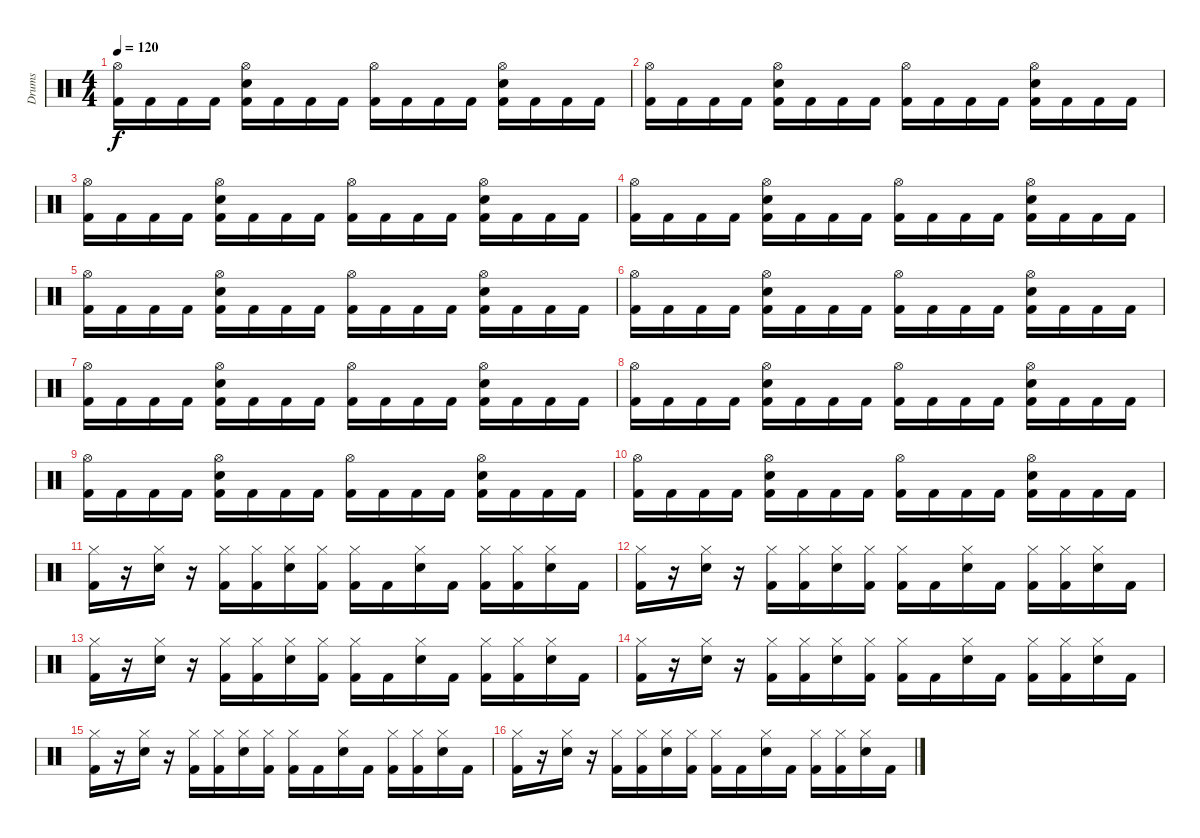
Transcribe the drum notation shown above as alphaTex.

\track ("Drums" "Drums") {instrument percussion}
\staff {score}
\articulation defaults
\ts (4 4)
\tempo 120
\clef neutral
\ks c
("Hi-Hat (open)" "Kick (hit) 2").16{dy f} "Kick (hit) 2".16 "Kick (hit) 2".16 "Kick (hit) 2".16 ("Hi-Hat (open)" "Snare (hit) 2" "Kick (hit) 2").16 "Kick (hit) 2".16 "Kick (hit) 2".16 "Kick (hit) 2".16 ("Hi-Hat (open)" "Kick (hit) 2").16 "Kick (hit) 2".16 "Kick (hit) 2".16 "Kick (hit) 2".16 ("Hi-Hat (open)" "Snare (hit) 2" "Kick (hit) 2").16 "Kick (hit) 2".16 "Kick (hit) 2".16 "Kick (hit) 2".16 |
("Hi-Hat (open)" "Kick (hit) 2").16 "Kick (hit) 2".16 "Kick (hit) 2".16 "Kick (hit) 2".16 ("Hi-Hat (open)" "Snare (hit) 2" "Kick (hit) 2").16 "Kick (hit) 2".16 "Kick (hit) 2".16 "Kick (hit) 2".16 ("Hi-Hat (open)" "Kick (hit) 2").16 "Kick (hit) 2".16 "Kick (hit) 2".16 "Kick (hit) 2".16 ("Hi-Hat (open)" "Snare (hit) 2" "Kick (hit) 2").16 "Kick (hit) 2".16 "Kick (hit) 2".16 "Kick (hit) 2".16 |
("Hi-Hat (open)" "Kick (hit) 2").16 "Kick (hit) 2".16 "Kick (hit) 2".16 "Kick (hit) 2".16 ("Hi-Hat (open)" "Snare (hit) 2" "Kick (hit) 2").16 "Kick (hit) 2".16 "Kick (hit) 2".16 "Kick (hit) 2".16 ("Hi-Hat (open)" "Kick (hit) 2").16 "Kick (hit) 2".16 "Kick (hit) 2".16 "Kick (hit) 2".16 ("Hi-Hat (open)" "Snare (hit) 2" "Kick (hit) 2").16 "Kick (hit) 2".16 "Kick (hit) 2".16 "Kick (hit) 2".16 |
("Hi-Hat (open)" "Kick (hit) 2").16 "Kick (hit) 2".16 "Kick (hit) 2".16 "Kick (hit) 2".16 ("Hi-Hat (open)" "Snare (hit) 2" "Kick (hit) 2").16 "Kick (hit) 2".16 "Kick (hit) 2".16 "Kick (hit) 2".16 ("Hi-Hat (open)" "Kick (hit) 2").16 "Kick (hit) 2".16 "Kick (hit) 2".16 "Kick (hit) 2".16 ("Hi-Hat (open)" "Snare (hit) 2" "Kick (hit) 2").16 "Kick (hit) 2".16 "Kick (hit) 2".16 "Kick (hit) 2".16 |
("Hi-Hat (open)" "Kick (hit) 2").16 "Kick (hit) 2".16 "Kick (hit) 2".16 "Kick (hit) 2".16 ("Hi-Hat (open)" "Snare (hit) 2" "Kick (hit) 2").16 "Kick (hit) 2".16 "Kick (hit) 2".16 "Kick (hit) 2".16 ("Hi-Hat (open)" "Kick (hit) 2").16 "Kick (hit) 2".16 "Kick (hit) 2".16 "Kick (hit) 2".16 ("Hi-Hat (open)" "Snare (hit) 2" "Kick (hit) 2").16 "Kick (hit) 2".16 "Kick (hit) 2".16 "Kick (hit) 2".16 |
("Hi-Hat (open)" "Kick (hit) 2").16 "Kick (hit) 2".16 "Kick (hit) 2".16 "Kick (hit) 2".16 ("Hi-Hat (open)" "Snare (hit) 2" "Kick (hit) 2").16 "Kick (hit) 2".16 "Kick (hit) 2".16 "Kick (hit) 2".16 ("Hi-Hat (open)" "Kick (hit) 2").16 "Kick (hit) 2".16 "Kick (hit) 2".16 "Kick (hit) 2".16 ("Hi-Hat (open)" "Snare (hit) 2" "Kick (hit) 2").16 "Kick (hit) 2".16 "Kick (hit) 2".16 "Kick (hit) 2".16 |
("Hi-Hat (open)" "Kick (hit) 2").16 "Kick (hit) 2".16 "Kick (hit) 2".16 "Kick (hit) 2".16 ("Hi-Hat (open)" "Snare (hit) 2" "Kick (hit) 2").16 "Kick (hit) 2".16 "Kick (hit) 2".16 "Kick (hit) 2".16 ("Hi-Hat (open)" "Kick (hit) 2").16 "Kick (hit) 2".16 "Kick (hit) 2".16 "Kick (hit) 2".16 ("Hi-Hat (open)" "Snare (hit) 2" "Kick (hit) 2").16 "Kick (hit) 2".16 "Kick (hit) 2".16 "Kick (hit) 2".16 |
("Hi-Hat (open)" "Kick (hit) 2").16 "Kick (hit) 2".16 "Kick (hit) 2".16 "Kick (hit) 2".16 ("Hi-Hat (open)" "Snare (hit) 2" "Kick (hit) 2").16 "Kick (hit) 2".16 "Kick (hit) 2".16 "Kick (hit) 2".16 ("Hi-Hat (open)" "Kick (hit) 2").16 "Kick (hit) 2".16 "Kick (hit) 2".16 "Kick (hit) 2".16 ("Hi-Hat (open)" "Snare (hit) 2" "Kick (hit) 2").16 "Kick (hit) 2".16 "Kick (hit) 2".16 "Kick (hit) 2".16 |
("Hi-Hat (open)" "Kick (hit) 2").16 "Kick (hit) 2".16 "Kick (hit) 2".16 "Kick (hit) 2".16 ("Hi-Hat (open)" "Snare (hit) 2" "Kick (hit) 2").16 "Kick (hit) 2".16 "Kick (hit) 2".16 "Kick (hit) 2".16 ("Hi-Hat (open)" "Kick (hit) 2").16 "Kick (hit) 2".16 "Kick (hit) 2".16 "Kick (hit) 2".16 ("Hi-Hat (open)" "Snare (hit) 2" "Kick (hit) 2").16 "Kick (hit) 2".16 "Kick (hit) 2".16 "Kick (hit) 2".16 |
("Hi-Hat (open)" "Kick (hit) 2").16 "Kick (hit) 2".16 "Kick (hit) 2".16 "Kick (hit) 2".16 ("Hi-Hat (open)" "Snare (hit) 2" "Kick (hit) 2").16 "Kick (hit) 2".16 "Kick (hit) 2".16 "Kick (hit) 2".16 ("Hi-Hat (open)" "Kick (hit) 2").16 "Kick (hit) 2".16 "Kick (hit) 2".16 "Kick (hit) 2".16 ("Hi-Hat (open)" "Snare (hit) 2" "Kick (hit) 2").16 "Kick (hit) 2".16 "Kick (hit) 2".16 "Kick (hit) 2".16 |
("Hi-Hat (closed)" "Kick (hit) 2").16 r.16 ("Hi-Hat (closed)" "Snare (hit) 2").16 r.16 ("Hi-Hat (closed)" "Kick (hit) 2").16 ("Hi-Hat (closed)" "Kick (hit) 2").16 ("Hi-Hat (closed)" "Snare (hit) 2").16 ("Hi-Hat (closed)" "Kick (hit) 2").16 ("Hi-Hat (closed)" "Kick (hit) 2").16 "Kick (hit) 2".16 ("Hi-Hat (closed)" "Snare (hit) 2").16 "Kick (hit) 2".16 ("Hi-Hat (closed)" "Kick (hit) 2").16 ("Hi-Hat (closed)" "Kick (hit) 2").16 ("Hi-Hat (closed)" "Snare (hit) 2").16 "Kick (hit) 2".16 |
("Hi-Hat (closed)" "Kick (hit) 2").16 r.16 ("Hi-Hat (closed)" "Snare (hit) 2").16 r.16 ("Hi-Hat (closed)" "Kick (hit) 2").16 ("Hi-Hat (closed)" "Kick (hit) 2").16 ("Hi-Hat (closed)" "Snare (hit) 2").16 ("Hi-Hat (closed)" "Kick (hit) 2").16 ("Hi-Hat (closed)" "Kick (hit) 2").16 "Kick (hit) 2".16 ("Hi-Hat (closed)" "Snare (hit) 2").16 "Kick (hit) 2".16 ("Hi-Hat (closed)" "Kick (hit) 2").16 ("Hi-Hat (closed)" "Kick (hit) 2").16 ("Hi-Hat (closed)" "Snare (hit) 2").16 "Kick (hit) 2".16 |
("Hi-Hat (closed)" "Kick (hit) 2").16 r.16 ("Hi-Hat (closed)" "Snare (hit) 2").16 r.16 ("Hi-Hat (closed)" "Kick (hit) 2").16 ("Hi-Hat (closed)" "Kick (hit) 2").16 ("Hi-Hat (closed)" "Snare (hit) 2").16 ("Hi-Hat (closed)" "Kick (hit) 2").16 ("Hi-Hat (closed)" "Kick (hit) 2").16 "Kick (hit) 2".16 ("Hi-Hat (closed)" "Snare (hit) 2").16 "Kick (hit) 2".16 ("Hi-Hat (closed)" "Kick (hit) 2").16 ("Hi-Hat (closed)" "Kick (hit) 2").16 ("Hi-Hat (closed)" "Snare (hit) 2").16 "Kick (hit) 2".16 |
("Hi-Hat (closed)" "Kick (hit) 2").16 r.16 ("Hi-Hat (closed)" "Snare (hit) 2").16 r.16 ("Hi-Hat (closed)" "Kick (hit) 2").16 ("Hi-Hat (closed)" "Kick (hit) 2").16 ("Hi-Hat (closed)" "Snare (hit) 2").16 ("Hi-Hat (closed)" "Kick (hit) 2").16 ("Hi-Hat (closed)" "Kick (hit) 2").16 "Kick (hit) 2".16 ("Hi-Hat (closed)" "Snare (hit) 2").16 "Kick (hit) 2".16 ("Hi-Hat (closed)" "Kick (hit) 2").16 ("Hi-Hat (closed)" "Kick (hit) 2").16 ("Hi-Hat (closed)" "Snare (hit) 2").16 "Kick (hit) 2".16 |
("Hi-Hat (closed)" "Kick (hit) 2").16 r.16 ("Hi-Hat (closed)" "Snare (hit) 2").16 r.16 ("Hi-Hat (closed)" "Kick (hit) 2").16 ("Hi-Hat (closed)" "Kick (hit) 2").16 ("Hi-Hat (closed)" "Snare (hit) 2").16 ("Hi-Hat (closed)" "Kick (hit) 2").16 ("Hi-Hat (closed)" "Kick (hit) 2").16 "Kick (hit) 2".16 ("Hi-Hat (closed)" "Snare (hit) 2").16 "Kick (hit) 2".16 ("Hi-Hat (closed)" "Kick (hit) 2").16 ("Hi-Hat (closed)" "Kick (hit) 2").16 ("Hi-Hat (closed)" "Snare (hit) 2").16 "Kick (hit) 2".16 |
("Hi-Hat (closed)" "Kick (hit) 2").16 r.16 ("Hi-Hat (closed)" "Snare (hit) 2").16 r.16 ("Hi-Hat (closed)" "Kick (hit) 2").16 ("Hi-Hat (closed)" "Kick (hit) 2").16 ("Hi-Hat (closed)" "Snare (hit) 2").16 ("Hi-Hat (closed)" "Kick (hit) 2").16 ("Hi-Hat (closed)" "Kick (hit) 2").16 "Kick (hit) 2".16 ("Hi-Hat (closed)" "Snare (hit) 2").16 "Kick (hit) 2".16 ("Hi-Hat (closed)" "Kick (hit) 2").16 ("Hi-Hat (closed)" "Kick (hit) 2").16 ("Hi-Hat (closed)" "Snare (hit) 2").16 "Kick (hit) 2".16
